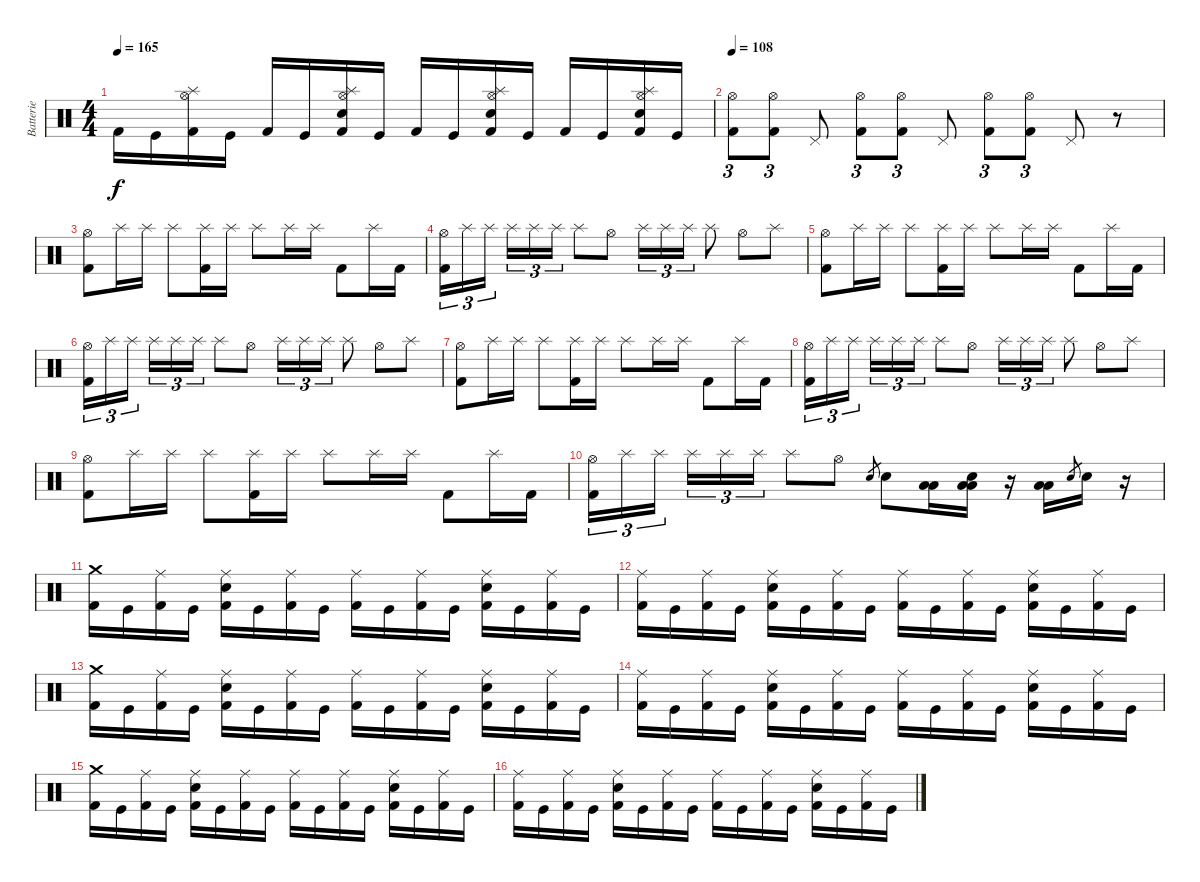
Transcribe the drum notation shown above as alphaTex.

\track ("Batterie" "Batterie") {instrument percussion}
\staff {score}
\articulation defaults
\ts (4 4)
\tempo 165
\clef neutral
\ks c "Kick (hit) 2".16{dy f} "Kick (hit)".16
("Hi-Hat (open)" "Splash (hit)" "Kick (hit) 2").16 "Kick (hit)".16 "Kick (hit) 2".16 "Kick (hit)".16 ("Hi-Hat (open)" "Splash (hit)" "Snare (hit) 2" "Kick (hit) 2").16 "Kick (hit)".16 "Kick (hit) 2".16 "Kick (hit)".16 ("Hi-Hat (open)" "Splash (hit)" "Snare (hit) 2" "Kick (hit) 2").16 "Kick (hit)".16 "Kick (hit) 2".16 "Kick (hit)".16 ("Hi-Hat (open)" "Splash (hit)" "Snare (hit) 2" "Kick (hit) 2").16 "Kick (hit)".16 |
\tempo 108
("Hi-Hat (open)" "Kick (hit) 2").8{tu (3 2)} ("Hi-Hat (open)" "Kick (hit) 2").8{tu (3 2)} "Pedal Hi-Hat (hit)".8 ("Hi-Hat (open)" "Kick (hit) 2").8{tu (3 2)} ("Hi-Hat (open)" "Kick (hit) 2").8{tu (3 2)} "Pedal Hi-Hat (hit)".8 ("Hi-Hat (open)" "Kick (hit) 2").8{tu (3 2)} ("Hi-Hat (open)" "Kick (hit) 2").8{tu (3 2)} "Pedal Hi-Hat (hit)".8 r.8 |
("Hi-Hat (open)" "Kick (hit) 2").8 "Splash (hit)".16 "Splash (hit)".16 "Splash (hit)".8 ("Splash (hit)" "Kick (hit) 2").16 "Splash (hit)".16 "Splash (hit)".8 "Splash (hit)".16 "Splash (hit)".16 "Kick (hit) 2".8 "Splash (hit)".16 "Kick (hit) 2".16 |
("Hi-Hat (open)" "Kick (hit) 2").16{tu (3 2)} "Splash (hit)".16{tu (3 2)} "Splash (hit)".16{tu (3 2) beam splitsecondary} "Splash (hit)".16{tu (3 2)} "Splash (hit)".16{tu (3 2)} "Splash (hit)".16{tu (3 2)} "Splash (hit)".8 "Hi-Hat (open)".8 "Splash (hit)".16{tu (3 2)} "Splash (hit)".16{tu (3 2)} "Splash (hit)".16{tu (3 2)} "Splash (hit)".8 "Hi-Hat (open)".8 "Splash (hit)".8 |
("Hi-Hat (open)" "Kick (hit) 2").8 "Splash (hit)".16 "Splash (hit)".16 "Splash (hit)".8 ("Splash (hit)" "Kick (hit) 2").16 "Splash (hit)".16 "Splash (hit)".8 "Splash (hit)".16 "Splash (hit)".16 "Kick (hit) 2".8 "Splash (hit)".16 "Kick (hit) 2".16 |
("Hi-Hat (open)" "Kick (hit) 2").16{tu (3 2)} "Splash (hit)".16{tu (3 2)} "Splash (hit)".16{tu (3 2) beam splitsecondary} "Splash (hit)".16{tu (3 2)} "Splash (hit)".16{tu (3 2)} "Splash (hit)".16{tu (3 2)} "Splash (hit)".8 "Hi-Hat (open)".8 "Splash (hit)".16{tu (3 2)} "Splash (hit)".16{tu (3 2)} "Splash (hit)".16{tu (3 2)} "Splash (hit)".8 "Hi-Hat (open)".8 "Splash (hit)".8 |
("Hi-Hat (open)" "Kick (hit) 2").8 "Splash (hit)".16 "Splash (hit)".16 "Splash (hit)".8 ("Splash (hit)" "Kick (hit) 2").16 "Splash (hit)".16 "Splash (hit)".8 "Splash (hit)".16 "Splash (hit)".16 "Kick (hit) 2".8 "Splash (hit)".16 "Kick (hit) 2".16 |
("Hi-Hat (open)" "Kick (hit) 2").16{tu (3 2)} "Splash (hit)".16{tu (3 2)} "Splash (hit)".16{tu (3 2) beam splitsecondary} "Splash (hit)".16{tu (3 2)} "Splash (hit)".16{tu (3 2)} "Splash (hit)".16{tu (3 2)} "Splash (hit)".8 "Hi-Hat (open)".8 "Splash (hit)".16{tu (3 2)} "Splash (hit)".16{tu (3 2)} "Splash (hit)".16{tu (3 2)} "Splash (hit)".8 "Hi-Hat (open)".8 "Splash (hit)".8 |
("Hi-Hat (open)" "Kick (hit) 2").8 "Splash (hit)".16 "Splash (hit)".16 "Splash (hit)".8 ("Splash (hit)" "Kick (hit) 2").16 "Splash (hit)".16 "Splash (hit)".8 "Splash (hit)".16 "Splash (hit)".16 "Kick (hit) 2".8 "Splash (hit)".16 "Kick (hit) 2".16 |
("Hi-Hat (open)" "Kick (hit) 2").16{tu (3 2)} "Splash (hit)".16{tu (3 2)} "Splash (hit)".16{tu (3 2) beam splitsecondary} "Splash (hit)".16{tu (3 2)} "Splash (hit)".16{tu (3 2)} "Splash (hit)".16{tu (3 2)} "Splash (hit)".8 "Hi-Hat (open)".8 "Electric Snare (hit)".8{gr} "Electric Snare (hit)".8 ("Low Tom (hit)" "Low Floor Tom (hit)").16 ("Snare (hit) 2" "Low Tom (hit)" "Low Floor Tom (hit)").16 r.16 ("Low Tom (hit)" "Low Floor Tom (hit)").16 "Electric Snare (hit)".8{gr} "Electric Snare (hit)".16 r.16 |
("Crash medium (hit)" "Kick (hit) 2").16 "Kick (hit)".16 ("Ride (middle)" "Kick (hit) 2").16 "Kick (hit)".16 ("Ride (middle)" "Snare (hit) 2" "Kick (hit) 2").16 "Kick (hit)".16 ("Ride (middle)" "Kick (hit) 2").16 "Kick (hit)".16 ("Ride (middle)" "Kick (hit) 2").16 "Kick (hit)".16 ("Ride (middle)" "Kick (hit) 2").16 "Kick (hit)".16 ("Ride (middle)" "Snare (hit) 2" "Kick (hit) 2").16 "Kick (hit)".16 ("Ride (middle)" "Kick (hit) 2").16 "Kick (hit)".16 |
("Ride (middle)" "Kick (hit) 2").16 "Kick (hit)".16 ("Ride (middle)" "Kick (hit) 2").16 "Kick (hit)".16 ("Ride (middle)" "Snare (hit) 2" "Kick (hit) 2").16 "Kick (hit)".16 ("Ride (middle)" "Kick (hit) 2").16 "Kick (hit)".16 ("Ride (middle)" "Kick (hit) 2").16 "Kick (hit)".16 ("Ride (middle)" "Kick (hit) 2").16 "Kick (hit)".16 ("Ride (middle)" "Snare (hit) 2" "Kick (hit) 2").16 "Kick (hit)".16 ("Ride (middle)" "Kick (hit) 2").16 "Kick (hit)".16 |
("Crash medium (hit)" "Kick (hit) 2").16 "Kick (hit)".16 ("Ride (middle)" "Kick (hit) 2").16 "Kick (hit)".16 ("Ride (middle)" "Snare (hit) 2" "Kick (hit) 2").16 "Kick (hit)".16 ("Ride (middle)" "Kick (hit) 2").16 "Kick (hit)".16 ("Ride (middle)" "Kick (hit) 2").16 "Kick (hit)".16 ("Ride (middle)" "Kick (hit) 2").16 "Kick (hit)".16 ("Ride (middle)" "Snare (hit) 2" "Kick (hit) 2").16 "Kick (hit)".16 ("Ride (middle)" "Kick (hit) 2").16 "Kick (hit)".16 |
("Ride (middle)" "Kick (hit) 2").16 "Kick (hit)".16 ("Ride (middle)" "Kick (hit) 2").16 "Kick (hit)".16 ("Ride (middle)" "Snare (hit) 2" "Kick (hit) 2").16 "Kick (hit)".16 ("Ride (middle)" "Kick (hit) 2").16 "Kick (hit)".16 ("Ride (middle)" "Kick (hit) 2").16 "Kick (hit)".16 ("Ride (middle)" "Kick (hit) 2").16 "Kick (hit)".16 ("Ride (middle)" "Snare (hit) 2" "Kick (hit) 2").16 "Kick (hit)".16 ("Ride (middle)" "Kick (hit) 2").16 "Kick (hit)".16 |
("Crash medium (hit)" "Kick (hit) 2").16 "Kick (hit)".16 ("Ride (middle)" "Kick (hit) 2").16 "Kick (hit)".16 ("Ride (middle)" "Snare (hit) 2" "Kick (hit) 2").16 "Kick (hit)".16 ("Ride (middle)" "Kick (hit) 2").16 "Kick (hit)".16 ("Ride (middle)" "Kick (hit) 2").16 "Kick (hit)".16 ("Ride (middle)" "Kick (hit) 2").16 "Kick (hit)".16 ("Ride (middle)" "Snare (hit) 2" "Kick (hit) 2").16 "Kick (hit)".16 ("Ride (middle)" "Kick (hit) 2").16 "Kick (hit)".16 |
("Ride (middle)" "Kick (hit) 2").16 "Kick (hit)".16 ("Ride (middle)" "Kick (hit) 2").16 "Kick (hit)".16 ("Ride (middle)" "Snare (hit) 2" "Kick (hit) 2").16 "Kick (hit)".16 ("Ride (middle)" "Kick (hit) 2").16 "Kick (hit)".16 ("Ride (middle)" "Kick (hit) 2").16 "Kick (hit)".16 ("Ride (middle)" "Kick (hit) 2").16 "Kick (hit)".16 ("Ride (middle)" "Snare (hit) 2" "Kick (hit) 2").16 "Kick (hit)".16 ("Ride (middle)" "Kick (hit) 2").16 "Kick (hit)".16
